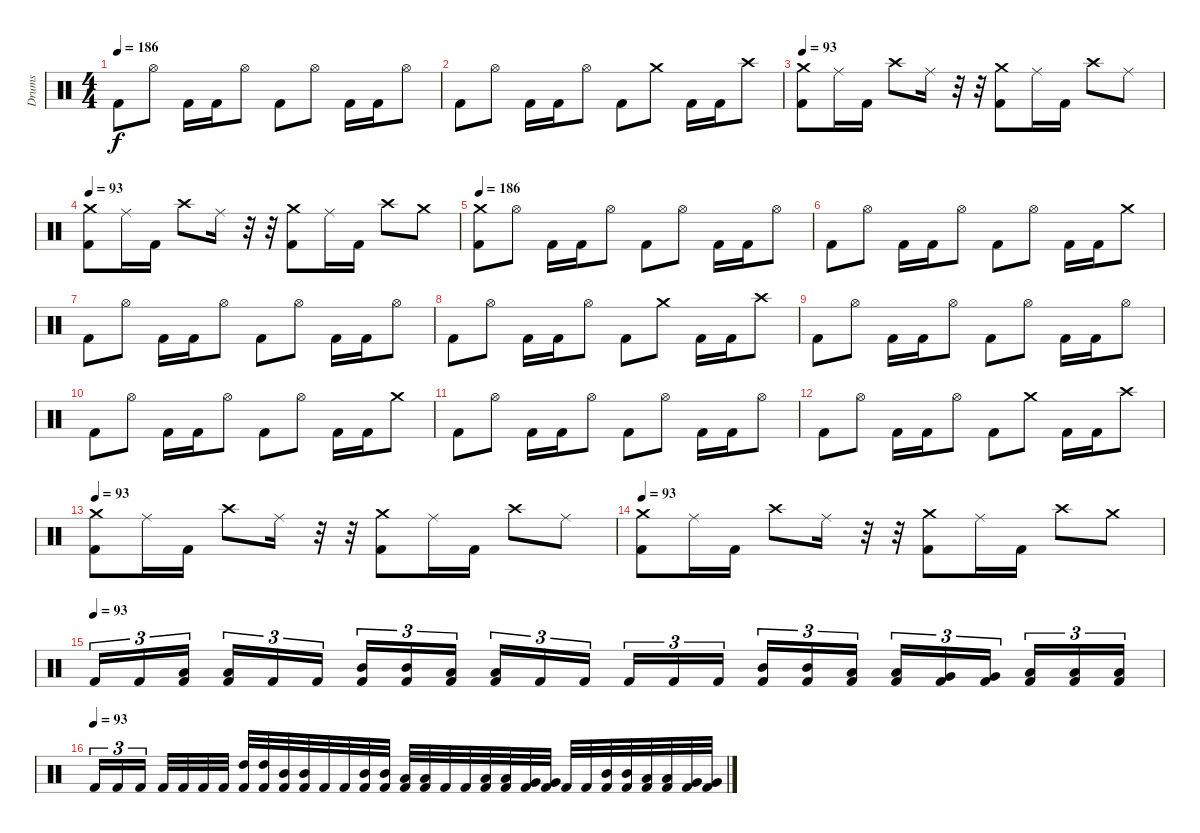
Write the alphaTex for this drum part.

\track ("Drums" "Drums") {instrument percussion}
\staff {score}
\articulation defaults
\ts (4 4)
\tempo 186
\clef neutral
\ks c "Kick (hit) 2".8{dy f} "Hi-Hat (open)".8 "Kick (hit) 2".16 "Kick (hit) 2".16 "Hi-Hat (open)".8 "Kick (hit) 2".8 "Hi-Hat (open)".8 "Kick (hit) 2".16 "Kick (hit) 2".16 "Hi-Hat (open)".8
|
"Kick (hit) 2".8 "Hi-Hat (open)".8 "Kick (hit) 2".16 "Kick (hit) 2".16 "Hi-Hat (open)".8 "Kick (hit) 2".8 "Crash medium (hit)".8 "Kick (hit) 2".16 "Kick (hit) 2".16 "Crash high (hit)".8 |
\tempo 93
("Crash medium (hit)" "Kick (hit) 2").8 "Ride (middle)".16 "Kick (hit) 2".16 "Crash high (hit)".8 "Ride (middle)".16 r.32 r.32 ("Crash medium (hit)" "Kick (hit) 2").8 "Ride (middle)".16 "Kick (hit) 2".16 "Crash high (hit)".8 "Ride (middle)".8 |
\tempo 93
("Crash medium (hit)" "Kick (hit) 2").8 "Ride (middle)".16 "Kick (hit) 2".16 "Crash high (hit)".8 "Ride (middle)".16 r.32 r.32 ("Crash medium (hit)" "Kick (hit) 2").8 "Ride (middle)".16 "Kick (hit) 2".16 "Crash high (hit)".8 "Crash medium (hit)".8 |
\tempo 186
("Crash medium (hit)" "Kick (hit) 2").8 "Hi-Hat (open)".8 "Kick (hit) 2".16 "Kick (hit) 2".16 "Hi-Hat (open)".8 "Kick (hit) 2".8 "Hi-Hat (open)".8 "Kick (hit) 2".16 "Kick (hit) 2".16 "Hi-Hat (open)".8 |
"Kick (hit) 2".8 "Hi-Hat (open)".8 "Kick (hit) 2".16 "Kick (hit) 2".16 "Hi-Hat (open)".8 "Kick (hit) 2".8 "Hi-Hat (open)".8 "Kick (hit) 2".16 "Kick (hit) 2".16 "Crash medium (hit)".8 |
"Kick (hit) 2".8 "Hi-Hat (open)".8 "Kick (hit) 2".16 "Kick (hit) 2".16 "Hi-Hat (open)".8 "Kick (hit) 2".8 "Hi-Hat (open)".8 "Kick (hit) 2".16 "Kick (hit) 2".16 "Hi-Hat (open)".8 |
"Kick (hit) 2".8 "Hi-Hat (open)".8 "Kick (hit) 2".16 "Kick (hit) 2".16 "Hi-Hat (open)".8 "Kick (hit) 2".8 "Crash medium (hit)".8 "Kick (hit) 2".16 "Kick (hit) 2".16 "Crash high (hit)".8 |
"Kick (hit) 2".8 "Hi-Hat (open)".8 "Kick (hit) 2".16 "Kick (hit) 2".16 "Hi-Hat (open)".8 "Kick (hit) 2".8 "Hi-Hat (open)".8 "Kick (hit) 2".16 "Kick (hit) 2".16 "Hi-Hat (open)".8 |
"Kick (hit) 2".8 "Hi-Hat (open)".8 "Kick (hit) 2".16 "Kick (hit) 2".16 "Hi-Hat (open)".8 "Kick (hit) 2".8 "Hi-Hat (open)".8 "Kick (hit) 2".16 "Kick (hit) 2".16 "Crash medium (hit)".8 |
"Kick (hit) 2".8 "Hi-Hat (open)".8 "Kick (hit) 2".16 "Kick (hit) 2".16 "Hi-Hat (open)".8 "Kick (hit) 2".8 "Hi-Hat (open)".8 "Kick (hit) 2".16 "Kick (hit) 2".16 "Hi-Hat (open)".8 |
"Kick (hit) 2".8 "Hi-Hat (open)".8 "Kick (hit) 2".16 "Kick (hit) 2".16 "Hi-Hat (open)".8 "Kick (hit) 2".8 "Crash medium (hit)".8 "Kick (hit) 2".16 "Kick (hit) 2".16 "Crash high (hit)".8 |
\tempo 93
("Crash medium (hit)" "Kick (hit) 2").8 "Ride (middle)".16 "Kick (hit) 2".16 "Crash high (hit)".8 "Ride (middle)".16 r.32 r.32 ("Crash medium (hit)" "Kick (hit) 2").8 "Ride (middle)".16 "Kick (hit) 2".16 "Crash high (hit)".8 "Ride (middle)".8 |
\tempo 93
("Crash medium (hit)" "Kick (hit) 2").8 "Ride (middle)".16 "Kick (hit) 2".16 "Crash high (hit)".8 "Ride (middle)".16 r.32 r.32 ("Crash medium (hit)" "Kick (hit) 2").8 "Ride (middle)".16 "Kick (hit) 2".16 "Crash high (hit)".8 "Crash medium (hit)".8 |
\tempo (93)
"Kick (hit) 2".16{tu (3 2)} "Kick (hit) 2".16{tu (3 2)} ("Low Tom (hit)" "Kick (hit) 2").16{tu (3 2) beam splitsecondary} ("Low Tom (hit)" "Kick (hit) 2").16{tu (3 2)} "Kick (hit) 2".16{tu (3 2)} "Kick (hit) 2".16{tu (3 2)} ("Mid Tom (hit)" "Kick (hit) 2").16{tu (3 2)} ("Mid Tom (hit)" "Kick (hit) 2").16{tu (3 2)} ("Low Tom (hit)" "Kick (hit) 2").16{tu (3 2) beam splitsecondary} ("Low Tom (hit)" "Kick (hit) 2").16{tu (3 2)} "Kick (hit) 2".16{tu (3 2)} "Kick (hit) 2".16{tu (3 2)} "Kick (hit) 2".16{tu (3 2)} "Kick (hit) 2".16{tu (3 2)} "Kick (hit) 2".16{tu (3 2) beam splitsecondary} ("Mid Tom (hit)" "Kick (hit) 2").16{tu (3 2)} ("Mid Tom (hit)" "Kick (hit) 2").16{tu (3 2)} ("Low Tom (hit)" "Kick (hit) 2").16{tu (3 2)} ("Low Tom (hit)" "Kick (hit) 2").16{tu (3 2)} ("Very Low Tom (hit)" "Kick (hit) 2").16{tu (3 2)} ("Very Low Tom (hit)" "Kick (hit) 2").16{tu (3 2) beam splitsecondary} ("Low Floor Tom (hit)" "Kick (hit) 2").16{tu (3 2)} ("Low Floor Tom (hit)" "Kick (hit) 2").16{tu (3 2)} ("Low Floor Tom (hit)" "Kick (hit) 2").16{tu (3 2)} |
\tempo (93)
"Kick (hit) 2".16{tu (3 2)} "Kick (hit) 2".16{tu (3 2)} "Kick (hit) 2".16{tu (3 2) beam splitsecondary} "Kick (hit) 2".32 "Kick (hit) 2".32 "Kick (hit) 2".32 "Kick (hit) 2".32 ("High Tom (hit)" "Kick (hit) 2").32 ("High Tom (hit)" "Kick (hit) 2").32 ("Mid Tom (hit)" "Kick (hit) 2").32 ("Mid Tom (hit)" "Kick (hit) 2").32 "Kick (hit) 2".32 "Kick (hit) 2".32 ("Mid Tom (hit)" "Kick (hit) 2").32 ("Mid Tom (hit)" "Kick (hit) 2").32 ("Low Tom (hit)" "Kick (hit) 2").32 ("Low Tom (hit)" "Kick (hit) 2").32 "Kick (hit) 2".32 "Kick (hit) 2".32 ("Low Tom (hit)" "Kick (hit) 2").32 ("Low Tom (hit)" "Kick (hit) 2").32 ("Very Low Tom (hit)" "Kick (hit) 2").32 ("Very Low Tom (hit)" "Kick (hit) 2").32 "Kick (hit) 2".32 "Kick (hit) 2".32 ("Mid Tom (hit)" "Kick (hit) 2").32 ("Mid Tom (hit)" "Kick (hit) 2").32 ("Low Tom (hit)" "Kick (hit) 2").32 ("Low Tom (hit)" "Kick (hit) 2").32 ("Very Low Tom (hit)" "Kick (hit) 2").32 ("Very Low Tom (hit)" "Kick (hit) 2").32
